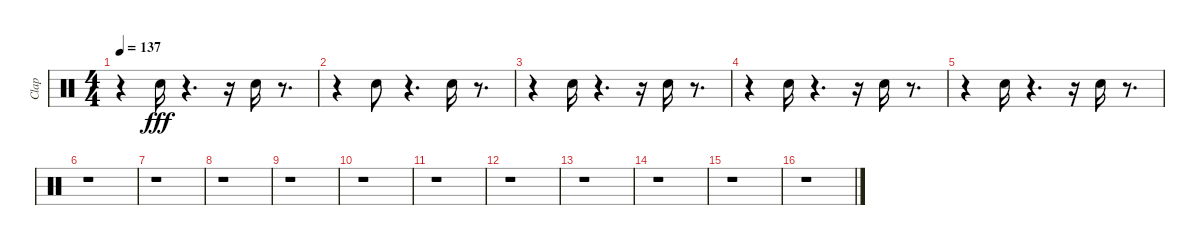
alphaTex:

\track ("Clap" "Clap") {instrument percussion}
\staff {score}
\articulation defaults
\ts (4 4)
\tempo 137
\clef neutral
\ks c
r.4{dy fff} "Hand Clap (hit)".16 r.4{d} r.16 "Hand Clap (hit)".16 r.8{d} |
r.4 "Hand Clap (hit)".8 r.4{d} "Hand Clap (hit)".16 r.8{d} |
r.4 "Hand Clap (hit)".16 r.4{d} r.16 "Hand Clap (hit)".16 r.8{d} |
r.4 "Hand Clap (hit)".16 r.4{d} r.16 "Hand Clap (hit)".16 r.8{d} |
r.4 "Hand Clap (hit)".16 r.4{d} r.16 "Hand Clap (hit)".16 r.8{d} |
r.1 |
r.1 |
r.1 |
r.1 |
r.1 |
r.1 |
r.1 |
r.1 |
r.1 |
r.1 |
r.1
